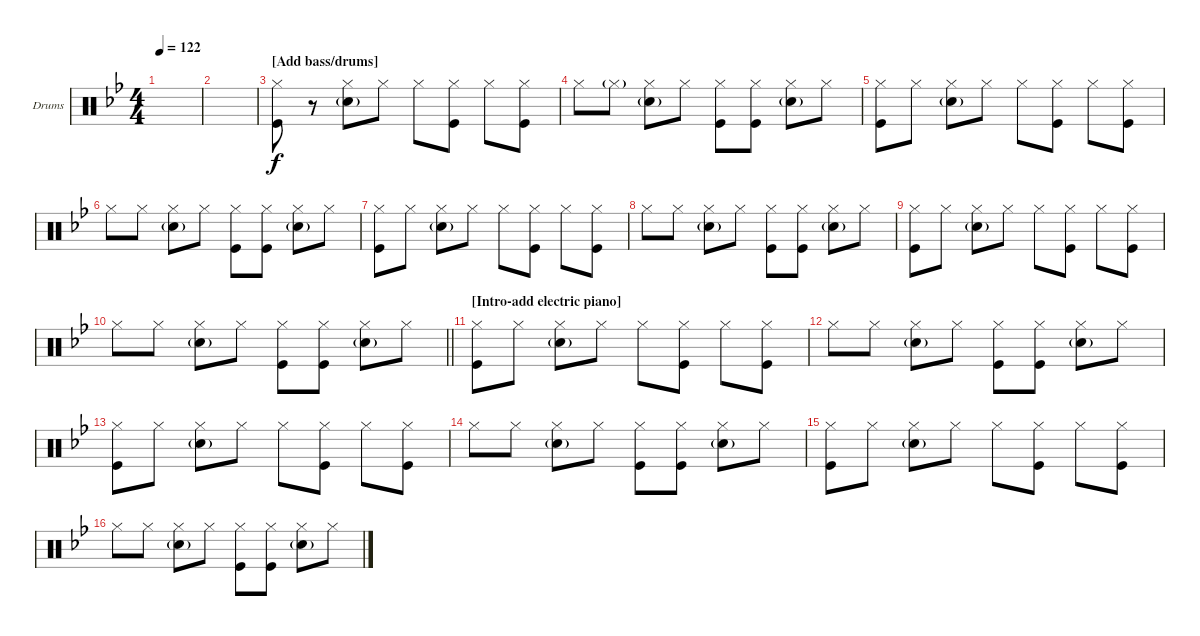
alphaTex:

\defaultSystemsLayout 4
\bracketExtendMode groupsimilarinstruments
\firstSystemTrackNameOrientation horizontal
\otherSystemsTrackNameOrientation horizontal
\track ("Drumkit" "Drums") {instrument percussion}
\staff {score}
\articulation defaults
\ts (4 4)
\tempo 122
\clef neutral
\ks bb
|
|
\section ("" "[Add bass/drums]")
("Hi-Hat (closed)" "Kick (hit)").8 r.8 ("Hi-Hat (closed)" "Snare (hit) 2"{g}).8 "Hi-Hat (closed)".8 "Hi-Hat (closed)".8 ("Hi-Hat (closed)" "Kick (hit)").8 "Hi-Hat (closed)".8 ("Hi-Hat (closed)" "Kick (hit)").8 |
"Hi-Hat (closed)".8 "Hi-Hat (closed)"{g}.8 ("Hi-Hat (closed)" "Snare (hit) 2"{g}).8 "Hi-Hat (closed)".8 ("Hi-Hat (closed)" "Kick (hit)").8 ("Hi-Hat (closed)" "Kick (hit)").8 ("Hi-Hat (closed)" "Snare (hit) 2"{g}).8 "Hi-Hat (closed)".8 |
("Hi-Hat (closed)" "Kick (hit)").8 "Hi-Hat (closed)".8 ("Hi-Hat (closed)" "Snare (hit) 2"{g}).8 "Hi-Hat (closed)".8 "Hi-Hat (closed)".8 ("Hi-Hat (closed)" "Kick (hit)").8 "Hi-Hat (closed)".8 ("Hi-Hat (closed)" "Kick (hit)").8 |
"Hi-Hat (closed)".8 "Hi-Hat (closed)".8 ("Hi-Hat (closed)" "Snare (hit) 2"{g}).8 "Hi-Hat (closed)".8 ("Hi-Hat (closed)" "Kick (hit)").8 ("Hi-Hat (closed)" "Kick (hit)").8 ("Hi-Hat (closed)" "Snare (hit) 2"{g}).8 "Hi-Hat (closed)".8 |
("Hi-Hat (closed)" "Kick (hit)").8 "Hi-Hat (closed)".8 ("Hi-Hat (closed)" "Snare (hit) 2"{g}).8 "Hi-Hat (closed)".8 "Hi-Hat (closed)".8 ("Hi-Hat (closed)" "Kick (hit)").8 "Hi-Hat (closed)".8 ("Hi-Hat (closed)" "Kick (hit)").8 |
"Hi-Hat (closed)".8 "Hi-Hat (closed)".8 ("Hi-Hat (closed)" "Snare (hit) 2"{g}).8 "Hi-Hat (closed)".8 ("Hi-Hat (closed)" "Kick (hit)").8 ("Hi-Hat (closed)" "Kick (hit)").8 ("Hi-Hat (closed)" "Snare (hit) 2"{g}).8 "Hi-Hat (closed)".8 |
("Hi-Hat (closed)" "Kick (hit)").8 "Hi-Hat (closed)".8 ("Hi-Hat (closed)" "Snare (hit) 2"{g}).8 "Hi-Hat (closed)".8 "Hi-Hat (closed)".8 ("Hi-Hat (closed)" "Kick (hit)").8 "Hi-Hat (closed)".8 ("Hi-Hat (closed)" "Kick (hit)").8 |
\barLineRight lightlight "Hi-Hat (closed)".8 "Hi-Hat (closed)".8
("Hi-Hat (closed)" "Snare (hit) 2"{g}).8 "Hi-Hat (closed)".8 ("Hi-Hat (closed)" "Kick (hit)").8 ("Hi-Hat (closed)" "Kick (hit)").8 ("Hi-Hat (closed)" "Snare (hit) 2"{g}).8 "Hi-Hat (closed)".8 |
\section ("" "[Intro-add electric piano]")
("Hi-Hat (closed)" "Kick (hit)").8 "Hi-Hat (closed)".8 ("Hi-Hat (closed)" "Snare (hit) 2"{g}).8 "Hi-Hat (closed)".8 "Hi-Hat (closed)".8 ("Hi-Hat (closed)" "Kick (hit)").8 "Hi-Hat (closed)".8 ("Hi-Hat (closed)" "Kick (hit)").8 |
"Hi-Hat (closed)".8 "Hi-Hat (closed)".8 ("Hi-Hat (closed)" "Snare (hit) 2"{g}).8 "Hi-Hat (closed)".8 ("Hi-Hat (closed)" "Kick (hit)").8 ("Hi-Hat (closed)" "Kick (hit)").8 ("Hi-Hat (closed)" "Snare (hit) 2"{g}).8 "Hi-Hat (closed)".8 |
("Hi-Hat (closed)" "Kick (hit)").8 "Hi-Hat (closed)".8 ("Hi-Hat (closed)" "Snare (hit) 2"{g}).8 "Hi-Hat (closed)".8 "Hi-Hat (closed)".8 ("Hi-Hat (closed)" "Kick (hit)").8 "Hi-Hat (closed)".8 ("Hi-Hat (closed)" "Kick (hit)").8 |
"Hi-Hat (closed)".8 "Hi-Hat (closed)".8 ("Hi-Hat (closed)" "Snare (hit) 2"{g}).8 "Hi-Hat (closed)".8 ("Hi-Hat (closed)" "Kick (hit)").8 ("Hi-Hat (closed)" "Kick (hit)").8 ("Hi-Hat (closed)" "Snare (hit) 2"{g}).8 "Hi-Hat (closed)".8 |
("Hi-Hat (closed)" "Kick (hit)").8 "Hi-Hat (closed)".8 ("Hi-Hat (closed)" "Snare (hit) 2"{g}).8 "Hi-Hat (closed)".8 "Hi-Hat (closed)".8 ("Hi-Hat (closed)" "Kick (hit)").8 "Hi-Hat (closed)".8 ("Hi-Hat (closed)" "Kick (hit)").8 |
"Hi-Hat (closed)".8 "Hi-Hat (closed)".8 ("Hi-Hat (closed)" "Snare (hit) 2"{g}).8 "Hi-Hat (closed)".8 ("Hi-Hat (closed)" "Kick (hit)").8 ("Hi-Hat (closed)" "Kick (hit)").8 ("Hi-Hat (closed)" "Snare (hit) 2"{g}).8 "Hi-Hat (closed)".8
